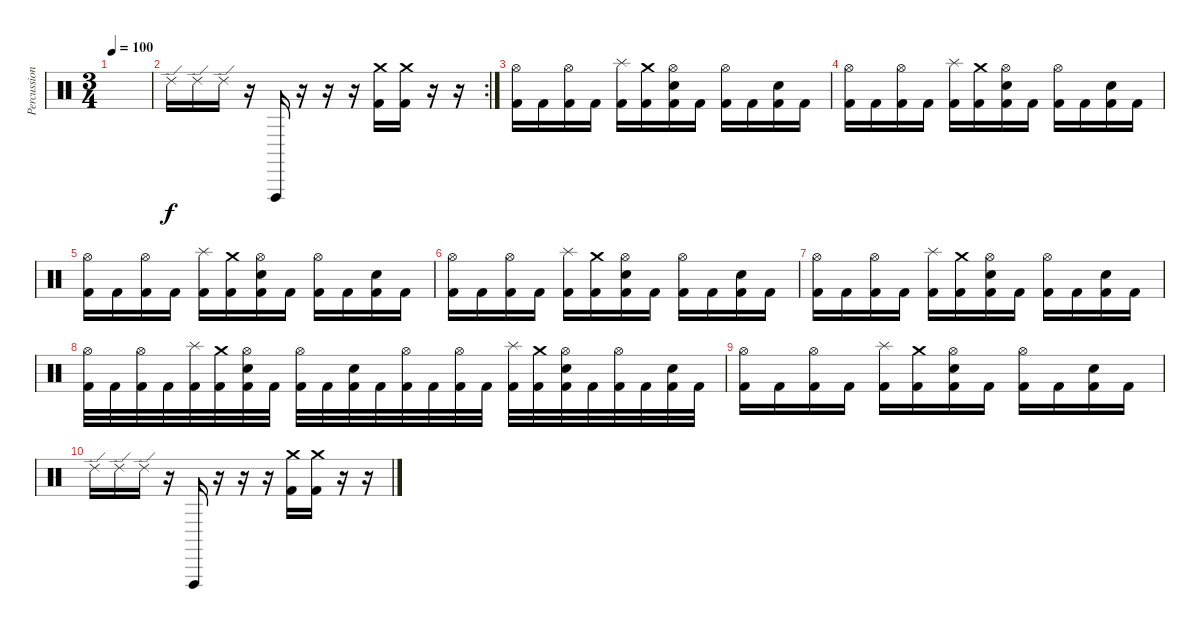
\track ("Percussion" "Percussion") {instrument percussion}
\staff {score}
\articulation defaults
\ts (3 4)
\tempo 100
\clef neutral
\ks c
|
\rc 2 "Ride (edge) 2".16 "Ride (edge) 2".16 "Ride (edge) 2".16
r.16 "Vibraslap (hit)".16 r.16 r.16 r.16 ("Crash medium (hit)" "Kick (hit) 2").16 ("Crash medium (hit)" "Kick (hit) 2").16 r.16 r.16 |
("Kick (hit) 2" "Hi-Hat (open)").16 "Kick (hit) 2".16 ("Kick (hit) 2" "Hi-Hat (open)").16 "Kick (hit) 2".16 ("Kick (hit) 2" "Splash (hit)").16 ("Kick (hit) 2" "Crash medium (hit)").16 ("Kick (hit) 2" "Snare (hit) 2" "Hi-Hat (open)").16 "Kick (hit) 2".16 ("Kick (hit) 2" "Hi-Hat (open)").16 "Kick (hit) 2".16 ("Kick (hit) 2" "Snare (hit) 2").16 "Kick (hit) 2".16 |
("Kick (hit) 2" "Hi-Hat (open)").16 "Kick (hit) 2".16 ("Kick (hit) 2" "Hi-Hat (open)").16 "Kick (hit) 2".16 ("Kick (hit) 2" "Splash (hit)").16 ("Kick (hit) 2" "Crash medium (hit)").16 ("Kick (hit) 2" "Snare (hit) 2" "Hi-Hat (open)").16 "Kick (hit) 2".16 ("Kick (hit) 2" "Hi-Hat (open)").16 "Kick (hit) 2".16 ("Kick (hit) 2" "Snare (hit) 2").16 "Kick (hit) 2".16 |
("Kick (hit) 2" "Hi-Hat (open)").16 "Kick (hit) 2".16 ("Kick (hit) 2" "Hi-Hat (open)").16 "Kick (hit) 2".16 ("Kick (hit) 2" "Splash (hit)").16 ("Kick (hit) 2" "Crash medium (hit)").16 ("Kick (hit) 2" "Snare (hit) 2" "Hi-Hat (open)").16 "Kick (hit) 2".16 ("Kick (hit) 2" "Hi-Hat (open)").16 "Kick (hit) 2".16 ("Kick (hit) 2" "Snare (hit) 2").16 "Kick (hit) 2".16 |
("Kick (hit) 2" "Hi-Hat (open)").16 "Kick (hit) 2".16 ("Kick (hit) 2" "Hi-Hat (open)").16 "Kick (hit) 2".16 ("Kick (hit) 2" "Splash (hit)").16 ("Kick (hit) 2" "Crash medium (hit)").16 ("Kick (hit) 2" "Snare (hit) 2" "Hi-Hat (open)").16 "Kick (hit) 2".16 ("Kick (hit) 2" "Hi-Hat (open)").16 "Kick (hit) 2".16 ("Kick (hit) 2" "Snare (hit) 2").16 "Kick (hit) 2".16 |
("Kick (hit) 2" "Hi-Hat (open)").16 "Kick (hit) 2".16 ("Kick (hit) 2" "Hi-Hat (open)").16 "Kick (hit) 2".16 ("Kick (hit) 2" "Splash (hit)").16 ("Kick (hit) 2" "Crash medium (hit)").16 ("Kick (hit) 2" "Snare (hit) 2" "Hi-Hat (open)").16 "Kick (hit) 2".16 ("Kick (hit) 2" "Hi-Hat (open)").16 "Kick (hit) 2".16 ("Kick (hit) 2" "Snare (hit) 2").16 "Kick (hit) 2".16 |
("Kick (hit) 2" "Hi-Hat (open)").32 "Kick (hit) 2".32 ("Kick (hit) 2" "Hi-Hat (open)").32 "Kick (hit) 2".32 ("Kick (hit) 2" "Splash (hit)").32 ("Kick (hit) 2" "Crash medium (hit)").32 ("Kick (hit) 2" "Snare (hit) 2" "Hi-Hat (open)").32 "Kick (hit) 2".32 ("Kick (hit) 2" "Hi-Hat (open)").32 "Kick (hit) 2".32 ("Kick (hit) 2" "Snare (hit) 2").32 "Kick (hit) 2".32 ("Kick (hit) 2" "Hi-Hat (open)").32 "Kick (hit) 2".32 ("Kick (hit) 2" "Hi-Hat (open)").32 "Kick (hit) 2".32 ("Kick (hit) 2" "Splash (hit)").32 ("Kick (hit) 2" "Crash medium (hit)").32 ("Kick (hit) 2" "Snare (hit) 2" "Hi-Hat (open)").32 "Kick (hit) 2".32 ("Kick (hit) 2" "Hi-Hat (open)").32 "Kick (hit) 2".32 ("Kick (hit) 2" "Snare (hit) 2").32 "Kick (hit) 2".32 |
("Kick (hit) 2" "Hi-Hat (open)").16 "Kick (hit) 2".16 ("Kick (hit) 2" "Hi-Hat (open)").16 "Kick (hit) 2".16 ("Kick (hit) 2" "Splash (hit)").16 ("Kick (hit) 2" "Crash medium (hit)").16 ("Kick (hit) 2" "Snare (hit) 2" "Hi-Hat (open)").16 "Kick (hit) 2".16 ("Kick (hit) 2" "Hi-Hat (open)").16 "Kick (hit) 2".16 ("Kick (hit) 2" "Snare (hit) 2").16 "Kick (hit) 2".16 |
"Ride (edge) 2".16 "Ride (edge) 2".16 "Ride (edge) 2".16 r.16 "Vibraslap (hit)".16 r.16 r.16 r.16 ("Crash medium (hit)" "Kick (hit) 2").16 ("Crash medium (hit)" "Kick (hit) 2").16 r.16 r.16
